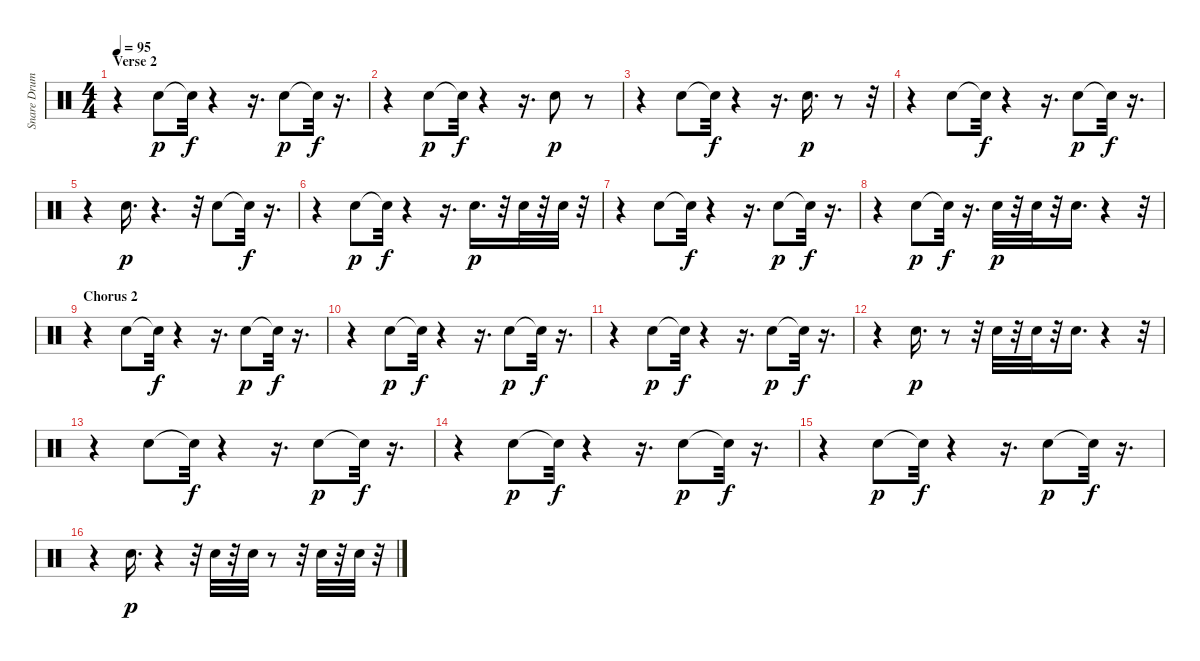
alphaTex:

\track ("Snare Drum" "Snare Drum") {instrument percussion}
\staff {score}
\articulation defaults
\ts (4 4)
\section ("" "Verse 2")
\tempo 95
\clef neutral
\ks c
r.4{dy p} "Snare (hit) 2".8 "Snare (hit)"{t}.32{dy f} r.4 r.16{d} "Snare (hit) 2".8{dy p} "Snare (hit)"{t}.32{dy f} r.16{d} |
r.4 "Snare (hit) 2".8{dy p} "Snare (hit)"{t}.32{dy f} r.4 r.16{d} "Snare (hit) 2".8{dy p} r.8 |
r.4 "Snare (hit) 2".8 "Snare (hit)"{t}.32{dy f} r.4 r.16{d} "Snare (hit) 2".16{d dy p} r.8 r.32 |
r.4 "Snare (hit) 2".8 "Snare (hit)"{t}.32{dy f} r.4 r.16{d} "Snare (hit) 2".8{dy p} "Snare (hit)"{t}.32{dy f} r.16{d} |
r.4 "Snare (hit) 2".16{d dy p} r.4{d} r.32 "Snare (hit) 2".8 "Snare (hit)"{t}.32{dy f} r.16{d} |
r.4 "Snare (hit) 2".8{dy p} "Snare (hit)"{t}.32{dy f} r.4 r.16{d} "Snare (hit) 2".16{d dy p} r.32 "Snare (hit) 2".32 r.32 "Snare (hit) 2".32 r.32 |
r.4 "Snare (hit) 2".8 "Snare (hit)"{t}.32{dy f} r.4 r.16{d} "Snare (hit) 2".8{dy p} "Snare (hit)"{t}.32{dy f} r.16{d} |
r.4 "Snare (hit) 2".8{dy p} "Snare (hit)"{t}.32{dy f} r.16{d} "Snare (hit) 2".32{dy p} r.32 "Snare (hit) 2".32 r.32 "Snare (hit) 2".16{d} r.4 r.32 |
\section ("" "Chorus 2")
r.4 "Snare (hit) 2".8 "Snare (hit)"{t}.32{dy f} r.4 r.16{d} "Snare (hit) 2".8{dy p} "Snare (hit)"{t}.32{dy f} r.16{d} |
r.4 "Snare (hit) 2".8{dy p} "Snare (hit)"{t}.32{dy f} r.4 r.16{d} "Snare (hit) 2".8{dy p} "Snare (hit)"{t}.32{dy f} r.16{d} |
r.4 "Snare (hit) 2".8{dy p} "Snare (hit)"{t}.32{dy f} r.4 r.16{d} "Snare (hit) 2".8{dy p} "Snare (hit)"{t}.32{dy f} r.16{d} |
r.4 "Snare (hit) 2".16{d dy p} r.8 r.32 "Snare (hit) 2".32 r.32 "Snare (hit) 2".32 r.32 "Snare (hit) 2".16{d} r.4 r.32 |
r.4 "Snare (hit) 2".8 "Snare (hit)"{t}.32{dy f} r.4 r.16{d} "Snare (hit) 2".8{dy p} "Snare (hit)"{t}.32{dy f} r.16{d} |
r.4 "Snare (hit) 2".8{dy p} "Snare (hit)"{t}.32{dy f} r.4 r.16{d} "Snare (hit) 2".8{dy p} "Snare (hit)"{t}.32{dy f} r.16{d} |
r.4 "Snare (hit) 2".8{dy p} "Snare (hit)"{t}.32{dy f} r.4 r.16{d} "Snare (hit) 2".8{dy p} "Snare (hit)"{t}.32{dy f} r.16{d} |
r.4 "Snare (hit) 2".16{d dy p} r.4 r.32 "Snare (hit) 2".32 r.32 "Snare (hit) 2".32 r.8 r.32 "Snare (hit) 2".32 r.32 "Snare (hit) 2".32 r.32
